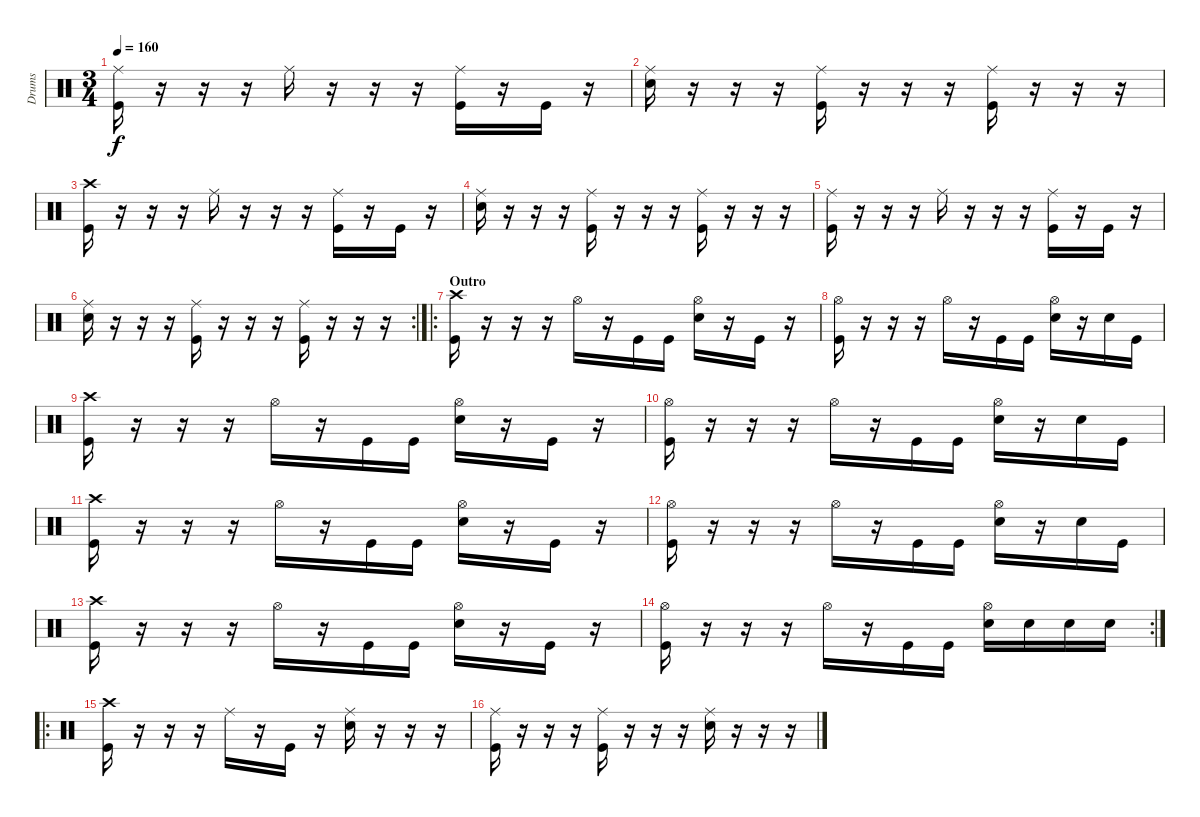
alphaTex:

\track ("Drums" "Drums") {instrument percussion}
\staff {score}
\articulation defaults
\ts (3 4)
\tempo 160
\clef neutral
\ks c
("Ride (middle)" "Kick (hit)").16{dy f} r.16 r.16 r.16 "Ride (middle)".16 r.16 r.16 r.16 ("Ride (middle)" "Kick (hit)").16 r.16 "Kick (hit)".16 r.16 |
("Ride (middle)" "Snare (hit) 2").16 r.16 r.16 r.16 ("Ride (middle)" "Kick (hit)").16 r.16 r.16 r.16 ("Ride (middle)" "Kick (hit)").16 r.16 r.16 r.16 |
("Crash high (hit)" "Kick (hit)").16 r.16 r.16 r.16 "Ride (middle)".16 r.16 r.16 r.16 ("Ride (middle)" "Kick (hit)").16 r.16 "Kick (hit)".16 r.16 |
("Ride (middle)" "Snare (hit) 2").16 r.16 r.16 r.16 ("Ride (middle)" "Kick (hit)").16 r.16 r.16 r.16 ("Ride (middle)" "Kick (hit)").16 r.16 r.16 r.16 |
("Ride (middle)" "Kick (hit)").16 r.16 r.16 r.16 "Ride (middle)".16 r.16 r.16 r.16 ("Ride (middle)" "Kick (hit)").16 r.16 "Kick (hit)".16 r.16 |
\rc 2
("Ride (middle)" "Snare (hit) 2").16 r.16 r.16 r.16 ("Ride (middle)" "Kick (hit)").16 r.16 r.16 r.16 ("Ride (middle)" "Kick (hit)").16 r.16 r.16 r.16 |
\ro
\section ("" "Outro")
("Crash high (hit)" "Kick (hit)").16 r.16 r.16 r.16 "Hi-Hat (open)".16 r.16 "Kick (hit)".16 "Kick (hit)".16 ("Hi-Hat (open)" "Snare (hit) 2").16 r.16 "Kick (hit)".16 r.16 |
("Hi-Hat (open)" "Kick (hit)").16 r.16 r.16 r.16 "Hi-Hat (open)".16 r.16 "Kick (hit)".16 "Kick (hit)".16 ("Hi-Hat (open)" "Snare (hit) 2").16 r.16 "Snare (hit) 2".16 "Kick (hit)".16 |
("Crash high (hit)" "Kick (hit)").16 r.16 r.16 r.16 "Hi-Hat (open)".16 r.16 "Kick (hit)".16 "Kick (hit)".16 ("Hi-Hat (open)" "Snare (hit) 2").16 r.16 "Kick (hit)".16 r.16 |
("Hi-Hat (open)" "Kick (hit)").16 r.16 r.16 r.16 "Hi-Hat (open)".16 r.16 "Kick (hit)".16 "Kick (hit)".16 ("Hi-Hat (open)" "Snare (hit) 2").16 r.16 "Snare (hit) 2".16 "Kick (hit)".16 |
("Crash high (hit)" "Kick (hit)").16 r.16 r.16 r.16 "Hi-Hat (open)".16 r.16 "Kick (hit)".16 "Kick (hit)".16 ("Hi-Hat (open)" "Snare (hit) 2").16 r.16 "Kick (hit)".16 r.16 |
("Hi-Hat (open)" "Kick (hit)").16 r.16 r.16 r.16 "Hi-Hat (open)".16 r.16 "Kick (hit)".16 "Kick (hit)".16 ("Hi-Hat (open)" "Snare (hit) 2").16 r.16 "Snare (hit) 2".16 "Kick (hit)".16 |
("Crash high (hit)" "Kick (hit)").16 r.16 r.16 r.16 "Hi-Hat (open)".16 r.16 "Kick (hit)".16 "Kick (hit)".16 ("Hi-Hat (open)" "Snare (hit) 2").16 r.16 "Kick (hit)".16 r.16 |
\rc 2
("Hi-Hat (open)" "Kick (hit)").16 r.16 r.16 r.16 "Hi-Hat (open)".16 r.16 "Kick (hit)".16 "Kick (hit)".16 ("Hi-Hat (open)" "Snare (hit) 2").16 "Snare (hit) 2".16 "Snare (hit) 2".16 "Snare (hit) 2".16 |
\ro
("Crash high (hit)" "Kick (hit)").16 r.16 r.16 r.16 "Ride (middle)".16 r.16 "Kick (hit)".16 r.16 ("Ride (middle)" "Snare (hit) 2").16 r.16 r.16 r.16 |
("Ride (middle)" "Kick (hit)").16 r.16 r.16 r.16 ("Ride (middle)" "Kick (hit)").16 r.16 r.16 r.16 ("Ride (middle)" "Snare (hit) 2").16 r.16 r.16 r.16
